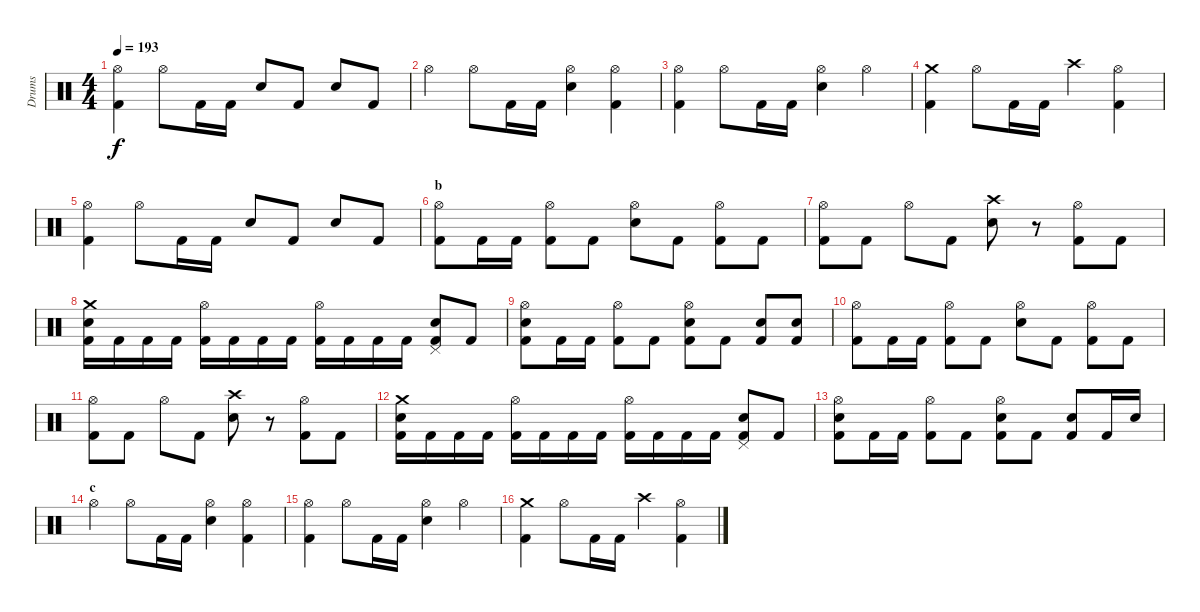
\track ("Drums" "Drums") {instrument percussion}
\staff {score}
\articulation defaults
\ts (4 4)
\tempo 193
\clef neutral
\ks c
("Hi-Hat (open)" "Kick (hit) 2").4{dy f} "Hi-Hat (open)".8 "Kick (hit) 2".16 "Kick (hit) 2".16 "Snare (hit) 2".8 "Kick (hit) 2".8 "Snare (hit) 2".8 "Kick (hit) 2".8 |
"Hi-Hat (open)".4 "Hi-Hat (open)".8 "Kick (hit) 2".16 "Kick (hit) 2".16 ("Hi-Hat (open)" "Snare (hit) 2").4 ("Hi-Hat (open)" "Kick (hit) 2").4 |
("Hi-Hat (open)" "Kick (hit) 2").4 "Hi-Hat (open)".8 "Kick (hit) 2".16 "Kick (hit) 2".16 ("Hi-Hat (open)" "Snare (hit) 2").4 "Hi-Hat (open)".4 |
("Crash medium (hit)" "Kick (hit) 2").4 "Hi-Hat (open)".8 "Kick (hit) 2".16 "Kick (hit) 2".16 "Crash high (hit)".4 ("Hi-Hat (open)" "Kick (hit) 2").4 |
("Hi-Hat (open)" "Kick (hit) 2").4 "Hi-Hat (open)".8 "Kick (hit) 2".16 "Kick (hit) 2".16 "Snare (hit) 2".8 "Kick (hit) 2".8 "Snare (hit) 2".8 "Kick (hit) 2".8 |
\section ("" "b")
("Hi-Hat (open)" "Kick (hit) 2").8 "Kick (hit) 2".16 "Kick (hit) 2".16 ("Hi-Hat (open)" "Kick (hit) 2").8 "Kick (hit) 2".8 ("Hi-Hat (open)" "Snare (hit) 2").8 "Kick (hit) 2".8 ("Hi-Hat (open)" "Kick (hit) 2").8 "Kick (hit) 2".8 |
("Hi-Hat (open)" "Kick (hit) 2").8 "Kick (hit) 2".8 "Hi-Hat (open)".8 "Kick (hit) 2".8 ("Crash high (hit)" "Snare (hit) 2").8 r.8 ("Hi-Hat (open)" "Kick (hit) 2").8 "Kick (hit) 2".8 |
("Crash medium (hit)" "Snare (hit) 2" "Kick (hit) 2").16 "Kick (hit) 2".16 "Kick (hit) 2".16 "Kick (hit) 2".16 ("Hi-Hat (open)" "Kick (hit) 2").16 "Kick (hit) 2".16 "Kick (hit) 2".16 "Kick (hit) 2".16 ("Hi-Hat (open)" "Kick (hit) 2").16 "Kick (hit) 2".16 "Kick (hit) 2".16 "Kick (hit) 2".16 ("Pedal Hi-Hat (hit)" "Snare (hit) 2" "Kick (hit) 2").8 "Kick (hit) 2".8 |
("Hi-Hat (open)" "Snare (hit) 2" "Kick (hit) 2").8 "Kick (hit) 2".16 "Kick (hit) 2".16 ("Hi-Hat (open)" "Kick (hit) 2").8 "Kick (hit) 2".8 ("Hi-Hat (open)" "Snare (hit) 2" "Kick (hit) 2").8 "Kick (hit) 2".8 ("Snare (hit) 2" "Kick (hit) 2").8 ("Snare (hit) 2" "Kick (hit) 2").8 |
("Hi-Hat (open)" "Kick (hit) 2").8 "Kick (hit) 2".16 "Kick (hit) 2".16 ("Hi-Hat (open)" "Kick (hit) 2").8 "Kick (hit) 2".8 ("Hi-Hat (open)" "Snare (hit) 2").8 "Kick (hit) 2".8 ("Hi-Hat (open)" "Kick (hit) 2").8 "Kick (hit) 2".8 |
("Hi-Hat (open)" "Kick (hit) 2").8 "Kick (hit) 2".8 "Hi-Hat (open)".8 "Kick (hit) 2".8 ("Crash high (hit)" "Snare (hit) 2").8 r.8 ("Hi-Hat (open)" "Kick (hit) 2").8 "Kick (hit) 2".8 |
("Crash medium (hit)" "Snare (hit) 2" "Kick (hit) 2").16 "Kick (hit) 2".16 "Kick (hit) 2".16 "Kick (hit) 2".16 ("Hi-Hat (open)" "Kick (hit) 2").16 "Kick (hit) 2".16 "Kick (hit) 2".16 "Kick (hit) 2".16 ("Hi-Hat (open)" "Kick (hit) 2").16 "Kick (hit) 2".16 "Kick (hit) 2".16 "Kick (hit) 2".16 ("Pedal Hi-Hat (hit)" "Snare (hit) 2" "Kick (hit) 2").8 "Kick (hit) 2".8 |
("Hi-Hat (open)" "Snare (hit) 2" "Kick (hit) 2").8 "Kick (hit) 2".16 "Kick (hit) 2".16 ("Hi-Hat (open)" "Kick (hit) 2").8 "Kick (hit) 2".8 ("Hi-Hat (open)" "Snare (hit) 2" "Kick (hit) 2").8 "Kick (hit) 2".8 ("Snare (hit) 2" "Kick (hit) 2").8 "Kick (hit) 2".16 "Snare (hit) 2".16 |
\section ("" "c")
"Hi-Hat (open)".4 "Hi-Hat (open)".8 "Kick (hit) 2".16 "Kick (hit) 2".16 ("Hi-Hat (open)" "Snare (hit) 2").4 ("Hi-Hat (open)" "Kick (hit) 2").4 |
("Hi-Hat (open)" "Kick (hit) 2").4 "Hi-Hat (open)".8 "Kick (hit) 2".16 "Kick (hit) 2".16 ("Hi-Hat (open)" "Snare (hit) 2").4 "Hi-Hat (open)".4 |
("Crash medium (hit)" "Kick (hit) 2").4 "Hi-Hat (open)".8 "Kick (hit) 2".16 "Kick (hit) 2".16 "Crash high (hit)".4 ("Hi-Hat (open)" "Kick (hit) 2").4
